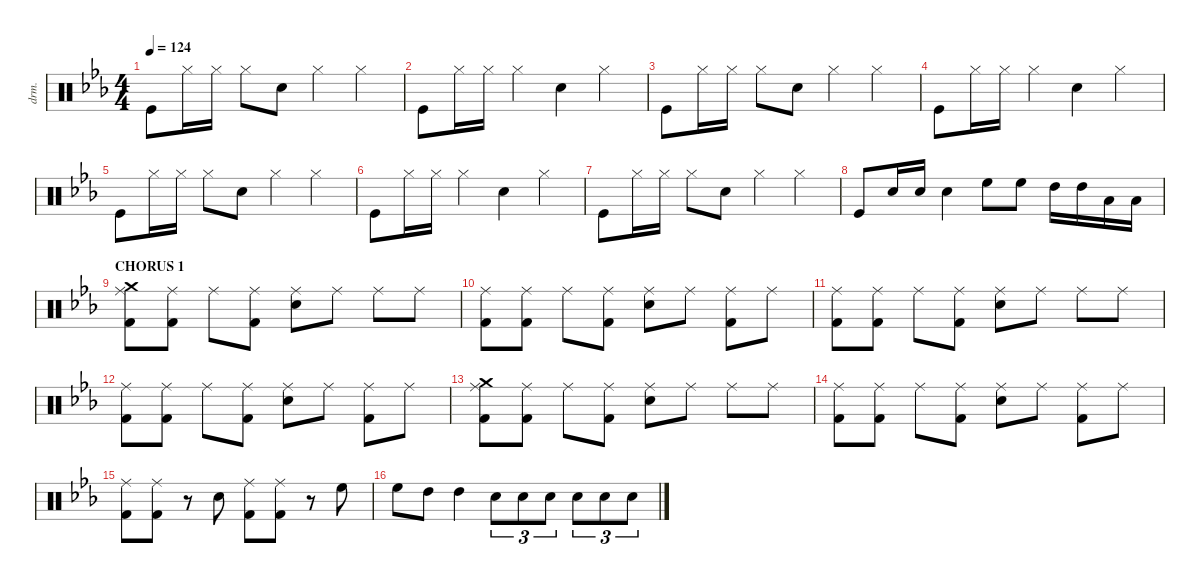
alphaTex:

\defaultSystemsLayout 4
\hideDynamics
\bracketExtendMode nobrackets
\otherSystemsTrackNameOrientation horizontal
\track ("Drumkit" "drm.") {instrument percussion}
\staff {score}
\articulation defaults
\ts (4 4)
\tempo 124
\clef neutral
\ks cminor "Kick (hit)"{acc forcenatural}.8{dy mf beam Down} "Hi-Hat (closed)"{acc forcenatural}.16{beam Down} "Hi-Hat (closed)"{acc forcenatural}.16{beam Down} "Hi-Hat (closed)"{acc forcenatural}.8{beam Down} "Snare (hit) 2"{acc forcenatural}.8{beam Down} "Hi-Hat (closed)"{acc forcenatural}.4{beam Down} "Hi-Hat (closed)"{acc forcenatural}.4{beam Down}
|
"Kick (hit)"{acc forcenatural}.8{beam Down} "Hi-Hat (closed)"{acc forcenatural}.16{beam Down} "Hi-Hat (closed)"{acc forcenatural}.16{beam Down} "Hi-Hat (closed)"{acc forcenatural}.4{beam Down} "Snare (hit) 2"{acc forcenatural}.4{beam Down} "Hi-Hat (closed)"{acc forcenatural}.4{beam Down} |
"Kick (hit)"{acc forcenatural}.8{beam Down} "Hi-Hat (closed)"{acc forcenatural}.16{beam Down} "Hi-Hat (closed)"{acc forcenatural}.16{beam Down} "Hi-Hat (closed)"{acc forcenatural}.8{beam Down} "Snare (hit) 2"{acc forcenatural}.8{beam Down} "Hi-Hat (closed)"{acc forcenatural}.4{beam Down} "Hi-Hat (closed)"{acc forcenatural}.4{beam Down} |
"Kick (hit)"{acc forcenatural}.8{beam Down} "Hi-Hat (closed)"{acc forcenatural}.16{beam Down} "Hi-Hat (closed)"{acc forcenatural}.16{beam Down} "Hi-Hat (closed)"{acc forcenatural}.4{beam Down} "Snare (hit) 2"{acc forcenatural}.4{beam Down} "Hi-Hat (closed)"{acc forcenatural}.4{beam Down} |
"Kick (hit)"{acc forcenatural}.8{beam Down} "Hi-Hat (closed)"{acc forcenatural}.16{beam Down} "Hi-Hat (closed)"{acc forcenatural}.16{beam Down} "Hi-Hat (closed)"{acc forcenatural}.8{beam Down} "Snare (hit) 2"{acc forcenatural}.8{beam Down} "Hi-Hat (closed)"{acc forcenatural}.4{beam Down} "Hi-Hat (closed)"{acc forcenatural}.4{beam Down} |
"Kick (hit)"{acc forcenatural}.8{beam Down} "Hi-Hat (closed)"{acc forcenatural}.16{beam Down} "Hi-Hat (closed)"{acc forcenatural}.16{beam Down} "Hi-Hat (closed)"{acc forcenatural}.4{beam Down} "Snare (hit) 2"{acc forcenatural}.4{beam Down} "Hi-Hat (closed)"{acc forcenatural}.4{beam Down} |
"Kick (hit)"{acc forcenatural}.8{beam Down} "Hi-Hat (closed)"{acc forcenatural}.16{beam Down} "Hi-Hat (closed)"{acc forcenatural}.16{beam Down} "Hi-Hat (closed)"{acc forcenatural}.8{beam Down} "Snare (hit) 2"{acc forcenatural}.8{beam Down} "Hi-Hat (closed)"{acc forcenatural}.4{beam Down} "Hi-Hat (closed)"{acc forcenatural}.4{beam Down} |
"Kick (hit)"{acc forcenatural}.8{beam Up} "Snare (hit) 2"{acc forcenatural}.16{beam Up} "Snare (hit) 2"{acc forcenatural}.16{beam Up} "Snare (hit) 2"{acc forcenatural}.4{beam Down} "High Floor Tom (hit)"{acc forcenatural}.8{beam Down} "High Floor Tom (hit)"{acc forcenatural}.8{beam Down} "High Tom (hit)"{acc forcenatural}.16{beam Down} "High Tom (hit)"{acc forcenatural}.16{beam Down} "Low Tom (hit)"{acc forcenatural}.16{beam Down} "Low Tom (hit)"{acc forcenatural}.16{beam Down} |
\section ("" "CHORUS 1")
("Ride (middle)"{acc forcenatural} "Kick (hit) 2"{acc forcenatural} "Crash medium (hit)"{acc forcenatural}).8{beam Down} ("Ride (middle)"{acc forcenatural} "Kick (hit) 2"{acc forcenatural}).8{beam Down} "Ride (middle)"{acc forcenatural}.8{beam Down} ("Ride (middle)"{acc forcenatural} "Kick (hit) 2"{acc forcenatural}).8{beam Down} ("Ride (middle)"{acc forcenatural} "Snare (hit) 2"{acc forcenatural}).8{beam Down} "Ride (middle)"{acc forcenatural}.8{beam Down} "Ride (middle)"{acc forcenatural}.8{beam Down} "Ride (middle)"{acc forcenatural}.8{beam Down} |
("Ride (middle)"{acc forcenatural} "Kick (hit) 2"{acc forcenatural}).8{beam Down} ("Ride (middle)"{acc forcenatural} "Kick (hit) 2"{acc forcenatural}).8{beam Down} "Ride (middle)"{acc forcenatural}.8{beam Down} ("Ride (middle)"{acc forcenatural} "Kick (hit) 2"{acc forcenatural}).8{beam Down} ("Ride (middle)"{acc forcenatural} "Snare (hit) 2"{acc forcenatural}).8{beam Down} "Ride (middle)"{acc forcenatural}.8{beam Down} ("Ride (middle)"{acc forcenatural} "Kick (hit) 2"{acc forcenatural}).8{beam Down} "Ride (middle)"{acc forcenatural}.8{beam Down} |
("Ride (middle)"{acc forcenatural} "Kick (hit) 2"{acc forcenatural}).8{beam Down} ("Ride (middle)"{acc forcenatural} "Kick (hit) 2"{acc forcenatural}).8{beam Down} "Ride (middle)"{acc forcenatural}.8{beam Down} ("Ride (middle)"{acc forcenatural} "Kick (hit) 2"{acc forcenatural}).8{beam Down} ("Ride (middle)"{acc forcenatural} "Snare (hit) 2"{acc forcenatural}).8{beam Down} "Ride (middle)"{acc forcenatural}.8{beam Down} "Ride (middle)"{acc forcenatural}.8{beam Down} "Ride (middle)"{acc forcenatural}.8{beam Down} |
("Ride (middle)"{acc forcenatural} "Kick (hit) 2"{acc forcenatural}).8{beam Down} ("Ride (middle)"{acc forcenatural} "Kick (hit) 2"{acc forcenatural}).8{beam Down} "Ride (middle)"{acc forcenatural}.8{beam Down} ("Ride (middle)"{acc forcenatural} "Kick (hit) 2"{acc forcenatural}).8{beam Down} ("Ride (middle)"{acc forcenatural} "Snare (hit) 2"{acc forcenatural}).8{beam Down} "Ride (middle)"{acc forcenatural}.8{beam Down} ("Ride (middle)"{acc forcenatural} "Kick (hit) 2"{acc forcenatural}).8{beam Down} "Ride (middle)"{acc forcenatural}.8{beam Down} |
("Ride (middle)"{acc forcenatural} "Kick (hit) 2"{acc forcenatural} "Crash medium (hit)"{acc forcenatural}).8{beam Down} ("Ride (middle)"{acc forcenatural} "Kick (hit) 2"{acc forcenatural}).8{beam Down} "Ride (middle)"{acc forcenatural}.8{beam Down} ("Ride (middle)"{acc forcenatural} "Kick (hit) 2"{acc forcenatural}).8{beam Down} ("Ride (middle)"{acc forcenatural} "Snare (hit) 2"{acc forcenatural}).8{beam Down} "Ride (middle)"{acc forcenatural}.8{beam Down} "Ride (middle)"{acc forcenatural}.8{beam Down} "Ride (middle)"{acc forcenatural}.8{beam Down} |
("Ride (middle)"{acc forcenatural} "Kick (hit) 2"{acc forcenatural}).8{beam Down} ("Ride (middle)"{acc forcenatural} "Kick (hit) 2"{acc forcenatural}).8{beam Down} "Ride (middle)"{acc forcenatural}.8{beam Down} ("Ride (middle)"{acc forcenatural} "Kick (hit) 2"{acc forcenatural}).8{beam Down} ("Ride (middle)"{acc forcenatural} "Snare (hit) 2"{acc forcenatural}).8{beam Down} "Ride (middle)"{acc forcenatural}.8{beam Down} ("Ride (middle)"{acc forcenatural} "Kick (hit) 2"{acc forcenatural}).8{beam Down} "Ride (middle)"{acc forcenatural}.8{beam Down} |
("Ride (middle)"{acc forcenatural} "Kick (hit) 2"{acc forcenatural}).8{beam Down} ("Ride (middle)"{acc forcenatural} "Kick (hit) 2"{acc forcenatural}).8{beam Down} r.8{beam Down} "Snare (hit) 2"{acc forcenatural}.8{beam Down} ("Ride (middle)"{acc forcenatural} "Kick (hit) 2"{acc forcenatural}).8{beam Down} ("Ride (middle)"{acc forcenatural} "Kick (hit) 2"{acc forcenatural}).8{beam Down} r.8{beam Down} "High Floor Tom (hit)"{acc forcenatural}.8{beam Down} |
"High Floor Tom (hit)"{acc forcenatural}.8{beam Down} "High Tom (hit)"{acc forcenatural}.8{beam Down} "High Tom (hit)"{acc forcenatural}.4{beam Down} "Snare (hit) 2"{acc forcenatural}.8{tu (3 2) beam Down} "Snare (hit) 2"{acc forcenatural}.8{tu (3 2) beam Down} "Snare (hit) 2"{acc forcenatural}.8{tu (3 2) beam Down} "Snare (hit) 2"{acc forcenatural}.8{tu (3 2) beam Down} "Snare (hit) 2"{acc forcenatural}.8{tu (3 2) beam Down} "Snare (hit) 2"{acc forcenatural}.8{tu (3 2) beam Down}
